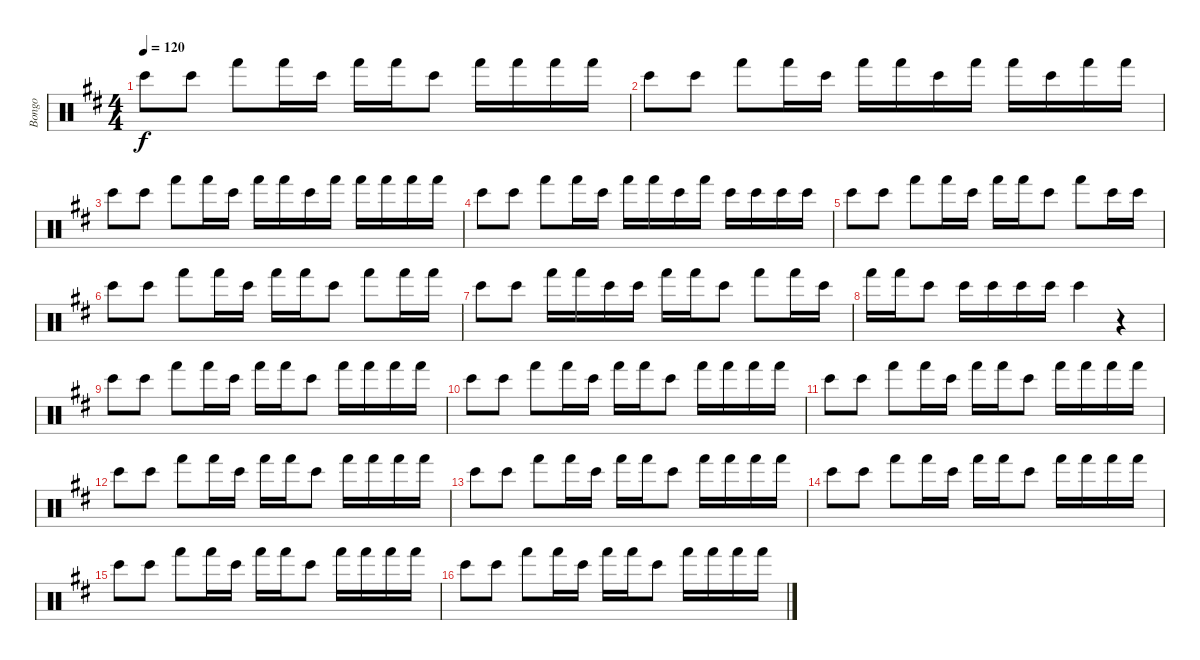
\track ("Bongo" "Bongo") {instrument percussion}
\staff {score}
\articulation defaults
\ts (4 4)
\tempo 120
\clef neutral
\ks d "Bongo High (hit)".8{dy f balance 16} "Bongo High (hit)".8 "Hand (hit)".8 "Hand (hit)".16 "Bongo High (hit)".16 "Hand (hit)".16 "Hand (hit)".16 "Bongo High (hit)".8 "Hand (hit)".16 "Hand (hit)".16 "Hand (hit)".16 "Hand (hit)".16
|
"Bongo High (hit)".8 "Bongo High (hit)".8 "Hand (hit)".8 "Hand (hit)".16 "Bongo High (hit)".16 "Hand (hit)".16 "Hand (hit)".16 "Bongo High (hit)".16 "Hand (hit)".16 "Hand (hit)".16 "Bongo High (hit)".16 "Hand (hit)".16 "Hand (hit)".16 |
"Bongo High (hit)".8 "Bongo High (hit)".8 "Hand (hit)".8 "Hand (hit)".16 "Bongo High (hit)".16 "Hand (hit)".16 "Hand (hit)".16 "Bongo High (hit)".16 "Hand (hit)".16 "Hand (hit)".16 "Hand (hit)".16 "Hand (hit)".16 "Hand (hit)".16 |
"Bongo High (hit)".8 "Bongo High (hit)".8 "Hand (hit)".8 "Hand (hit)".16 "Bongo High (hit)".16 "Hand (hit)".16 "Hand (hit)".16 "Bongo High (hit)".16 "Hand (hit)".16 "Bongo High (hit)".16 "Bongo High (hit)".16 "Bongo High (hit)".16 "Bongo High (hit)".16 |
"Bongo High (hit)".8 "Bongo High (hit)".8 "Hand (hit)".8 "Hand (hit)".16 "Bongo High (hit)".16 "Hand (hit)".16 "Hand (hit)".16 "Bongo High (hit)".8 "Hand (hit)".8 "Bongo High (hit)".16 "Bongo High (hit)".16 |
"Bongo High (hit)".8 "Bongo High (hit)".8 "Hand (hit)".8 "Hand (hit)".16 "Bongo High (hit)".16 "Hand (hit)".16 "Hand (hit)".16 "Bongo High (hit)".8 "Hand (hit)".8 "Hand (hit)".16 "Hand (hit)".16 |
"Bongo High (hit)".8 "Bongo High (hit)".8 "Hand (hit)".16 "Hand (hit)".16 "Bongo High (hit)".16 "Bongo High (hit)".16 "Hand (hit)".16 "Hand (hit)".16 "Bongo High (hit)".8 "Hand (hit)".8 "Hand (hit)".16 "Bongo High (hit)".16 |
"Hand (hit)".16 "Hand (hit)".16 "Bongo High (hit)".8 "Bongo High (hit)".16 "Bongo High (hit)".16 "Bongo High (hit)".16 "Bongo High (hit)".16 "Bongo High (hit)".4 r.4 |
"Bongo High (hit)".8 "Bongo High (hit)".8 "Hand (hit)".8 "Hand (hit)".16 "Bongo High (hit)".16 "Hand (hit)".16 "Hand (hit)".16 "Bongo High (hit)".8 "Hand (hit)".16 "Hand (hit)".16 "Hand (hit)".16 "Hand (hit)".16 |
"Bongo High (hit)".8 "Bongo High (hit)".8 "Hand (hit)".8 "Hand (hit)".16 "Bongo High (hit)".16 "Hand (hit)".16 "Hand (hit)".16 "Bongo High (hit)".8 "Hand (hit)".16 "Hand (hit)".16 "Hand (hit)".16 "Hand (hit)".16 |
"Bongo High (hit)".8 "Bongo High (hit)".8 "Hand (hit)".8 "Hand (hit)".16 "Bongo High (hit)".16 "Hand (hit)".16 "Hand (hit)".16 "Bongo High (hit)".8 "Hand (hit)".16 "Hand (hit)".16 "Hand (hit)".16 "Hand (hit)".16 |
"Bongo High (hit)".8 "Bongo High (hit)".8 "Hand (hit)".8 "Hand (hit)".16 "Bongo High (hit)".16 "Hand (hit)".16 "Hand (hit)".16 "Bongo High (hit)".8 "Hand (hit)".16 "Hand (hit)".16 "Hand (hit)".16 "Hand (hit)".16 |
"Bongo High (hit)".8 "Bongo High (hit)".8 "Hand (hit)".8 "Hand (hit)".16 "Bongo High (hit)".16 "Hand (hit)".16 "Hand (hit)".16 "Bongo High (hit)".8 "Hand (hit)".16 "Hand (hit)".16 "Hand (hit)".16 "Hand (hit)".16 |
"Bongo High (hit)".8 "Bongo High (hit)".8 "Hand (hit)".8 "Hand (hit)".16 "Bongo High (hit)".16 "Hand (hit)".16 "Hand (hit)".16 "Bongo High (hit)".8 "Hand (hit)".16 "Hand (hit)".16 "Hand (hit)".16 "Hand (hit)".16 |
"Bongo High (hit)".8 "Bongo High (hit)".8 "Hand (hit)".8 "Hand (hit)".16 "Bongo High (hit)".16 "Hand (hit)".16 "Hand (hit)".16 "Bongo High (hit)".8 "Hand (hit)".16 "Hand (hit)".16 "Hand (hit)".16 "Hand (hit)".16 |
"Bongo High (hit)".8 "Bongo High (hit)".8 "Hand (hit)".8 "Hand (hit)".16 "Bongo High (hit)".16 "Hand (hit)".16 "Hand (hit)".16 "Bongo High (hit)".8 "Hand (hit)".16 "Hand (hit)".16 "Hand (hit)".16 "Hand (hit)".16
